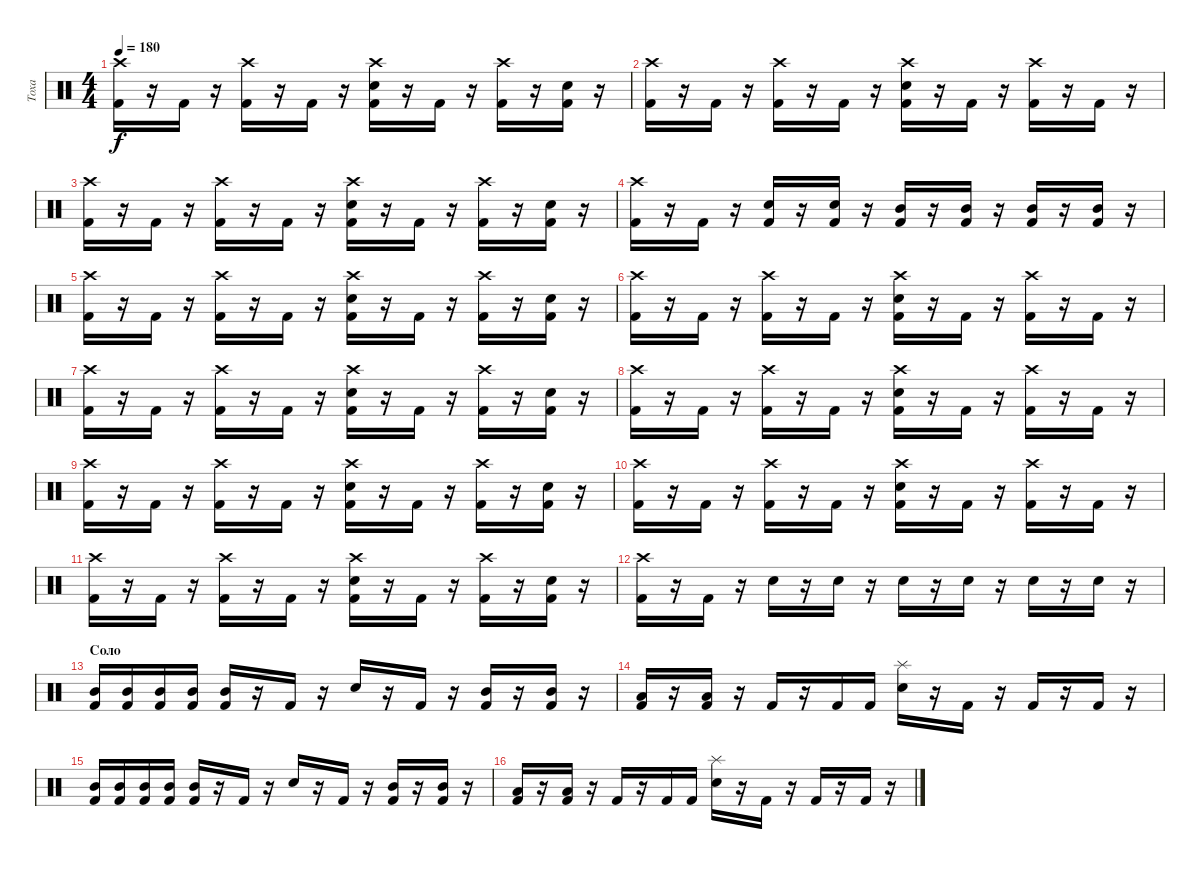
\track ("Тоха" "Тоха") {instrument percussion}
\staff {score}
\articulation defaults
\ts (4 4)
\tempo 180
\clef neutral
\ks c
("Crash high (hit)" "Kick (hit) 2").16{dy f} r.16 "Kick (hit) 2".16 r.16 ("Crash high (hit)" "Kick (hit) 2").16 r.16 "Kick (hit) 2".16 r.16 ("Crash high (hit)" "Electric Snare (hit)" "Kick (hit) 2").16 r.16 "Kick (hit) 2".16 r.16 ("Crash high (hit)" "Kick (hit) 2").16 r.16 ("Electric Snare (hit)" "Kick (hit) 2").16 r.16 |
("Crash high (hit)" "Kick (hit) 2").16 r.16 "Kick (hit) 2".16 r.16 ("Crash high (hit)" "Kick (hit) 2").16 r.16 "Kick (hit) 2".16 r.16 ("Crash high (hit)" "Electric Snare (hit)" "Kick (hit) 2").16 r.16 "Kick (hit) 2".16 r.16 ("Crash high (hit)" "Kick (hit) 2").16 r.16 "Kick (hit) 2".16 r.16 |
("Crash high (hit)" "Kick (hit) 2").16 r.16 "Kick (hit) 2".16 r.16 ("Crash high (hit)" "Kick (hit) 2").16 r.16 "Kick (hit) 2".16 r.16 ("Crash high (hit)" "Electric Snare (hit)" "Kick (hit) 2").16 r.16 "Kick (hit) 2".16 r.16 ("Crash high (hit)" "Kick (hit) 2").16 r.16 ("Electric Snare (hit)" "Kick (hit) 2").16 r.16 |
("Crash high (hit)" "Kick (hit) 2").16 r.16 "Kick (hit) 2".16 r.16 ("Electric Snare (hit)" "Kick (hit) 2").16 r.16 ("Electric Snare (hit)" "Kick (hit) 2").16 r.16 ("Mid Tom (hit)" "Kick (hit) 2").16 r.16 ("Mid Tom (hit)" "Kick (hit) 2").16 r.16 ("Mid Tom (hit)" "Kick (hit) 2").16 r.16 ("Mid Tom (hit)" "Kick (hit) 2").16 r.16 |
("Crash high (hit)" "Kick (hit) 2").16 r.16 "Kick (hit) 2".16 r.16 ("Crash high (hit)" "Kick (hit) 2").16 r.16 "Kick (hit) 2".16 r.16 ("Crash high (hit)" "Electric Snare (hit)" "Kick (hit) 2").16 r.16 "Kick (hit) 2".16 r.16 ("Crash high (hit)" "Kick (hit) 2").16 r.16 ("Electric Snare (hit)" "Kick (hit) 2").16 r.16 |
("Crash high (hit)" "Kick (hit) 2").16 r.16 "Kick (hit) 2".16 r.16 ("Crash high (hit)" "Kick (hit) 2").16 r.16 "Kick (hit) 2".16 r.16 ("Crash high (hit)" "Electric Snare (hit)" "Kick (hit) 2").16 r.16 "Kick (hit) 2".16 r.16 ("Crash high (hit)" "Kick (hit) 2").16 r.16 "Kick (hit) 2".16 r.16 |
("Crash high (hit)" "Kick (hit) 2").16 r.16 "Kick (hit) 2".16 r.16 ("Crash high (hit)" "Kick (hit) 2").16 r.16 "Kick (hit) 2".16 r.16 ("Crash high (hit)" "Electric Snare (hit)" "Kick (hit) 2").16 r.16 "Kick (hit) 2".16 r.16 ("Crash high (hit)" "Kick (hit) 2").16 r.16 ("Electric Snare (hit)" "Kick (hit) 2").16 r.16 |
("Crash high (hit)" "Kick (hit) 2").16 r.16 "Kick (hit) 2".16 r.16 ("Crash high (hit)" "Kick (hit) 2").16 r.16 "Kick (hit) 2".16 r.16 ("Crash high (hit)" "Electric Snare (hit)" "Kick (hit) 2").16 r.16 "Kick (hit) 2".16 r.16 ("Crash high (hit)" "Kick (hit) 2").16 r.16 "Kick (hit) 2".16 r.16 |
("Crash high (hit)" "Kick (hit) 2").16 r.16 "Kick (hit) 2".16 r.16 ("Crash high (hit)" "Kick (hit) 2").16 r.16 "Kick (hit) 2".16 r.16 ("Crash high (hit)" "Electric Snare (hit)" "Kick (hit) 2").16 r.16 "Kick (hit) 2".16 r.16 ("Crash high (hit)" "Kick (hit) 2").16 r.16 ("Electric Snare (hit)" "Kick (hit) 2").16 r.16 |
("Crash high (hit)" "Kick (hit) 2").16 r.16 "Kick (hit) 2".16 r.16 ("Crash high (hit)" "Kick (hit) 2").16 r.16 "Kick (hit) 2".16 r.16 ("Crash high (hit)" "Electric Snare (hit)" "Kick (hit) 2").16 r.16 "Kick (hit) 2".16 r.16 ("Crash high (hit)" "Kick (hit) 2").16 r.16 "Kick (hit) 2".16 r.16 |
("Crash high (hit)" "Kick (hit) 2").16 r.16 "Kick (hit) 2".16 r.16 ("Crash high (hit)" "Kick (hit) 2").16 r.16 "Kick (hit) 2".16 r.16 ("Crash high (hit)" "Electric Snare (hit)" "Kick (hit) 2").16 r.16 "Kick (hit) 2".16 r.16 ("Crash high (hit)" "Kick (hit) 2").16 r.16 ("Electric Snare (hit)" "Kick (hit) 2").16 r.16 |
("Crash high (hit)" "Kick (hit) 2").16 r.16 "Kick (hit) 2".16 r.16 "Electric Snare (hit)".16 r.16 "Electric Snare (hit)".16 r.16 "Electric Snare (hit)".16 r.16 "Electric Snare (hit)".16 r.16 "Electric Snare (hit)".16 r.16 "Electric Snare (hit)".16 r.16 |
\section ("" "Соло")
("Mid Tom (hit)" "Kick (hit) 2").16 ("Mid Tom (hit)" "Kick (hit) 2").16 ("Mid Tom (hit)" "Kick (hit) 2").16 ("Mid Tom (hit)" "Kick (hit) 2").16 ("Mid Tom (hit)" "Kick (hit) 2").16 r.16 "Kick (hit) 2".16 r.16 "Electric Snare (hit)".16 r.16 "Kick (hit) 2".16 r.16 ("Mid Tom (hit)" "Kick (hit) 2").16 r.16 ("Mid Tom (hit)" "Kick (hit) 2").16 r.16 |
("Low Tom (hit)" "Kick (hit) 2").16 r.16 ("Low Tom (hit)" "Kick (hit) 2").16 r.16 "Kick (hit) 2".16 r.16 "Kick (hit) 2".16 "Kick (hit) 2".16 ("Splash (hit)" "Electric Snare (hit)").16 r.16 "Kick (hit) 2".16 r.16 "Kick (hit) 2".16 r.16 "Kick (hit) 2".16 r.16 |
("Mid Tom (hit)" "Kick (hit) 2").16 ("Mid Tom (hit)" "Kick (hit) 2").16 ("Mid Tom (hit)" "Kick (hit) 2").16 ("Mid Tom (hit)" "Kick (hit) 2").16 ("Mid Tom (hit)" "Kick (hit) 2").16 r.16 "Kick (hit) 2".16 r.16 "Electric Snare (hit)".16 r.16 "Kick (hit) 2".16 r.16 ("Mid Tom (hit)" "Kick (hit) 2").16 r.16 ("Mid Tom (hit)" "Kick (hit) 2").16 r.16 |
("Low Tom (hit)" "Kick (hit) 2").16 r.16 ("Low Tom (hit)" "Kick (hit) 2").16 r.16 "Kick (hit) 2".16 r.16 "Kick (hit) 2".16 "Kick (hit) 2".16 ("Splash (hit)" "Electric Snare (hit)").16 r.16 "Kick (hit) 2".16 r.16 "Kick (hit) 2".16 r.16 "Kick (hit) 2".16 r.16
